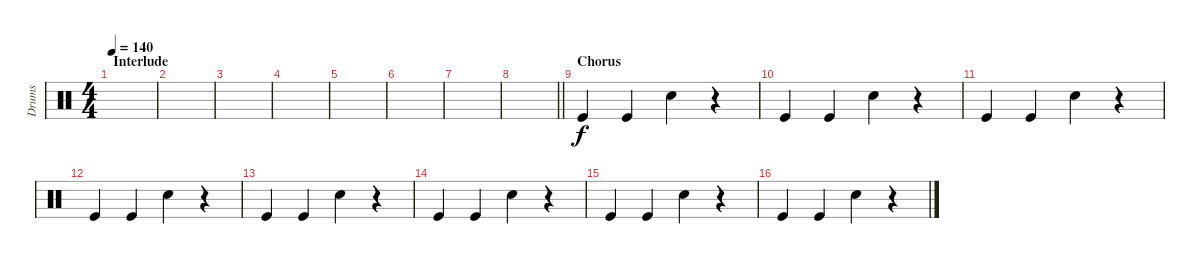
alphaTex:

\track ("Drums" "Drums") {instrument percussion}
\staff {score}
\articulation defaults
\ts (4 4)
\section ("" "Interlude")
\tempo 140
\clef neutral
\ks c
|
|
|
|
|
|
|
\barLineRight lightlight
|
\section ("" "Chorus")
"Kick (hit)".4 "Kick (hit)".4 "Snare (hit) 2".4 r.4 |
"Kick (hit)".4 "Kick (hit)".4 "Snare (hit) 2".4 r.4 |
"Kick (hit)".4 "Kick (hit)".4 "Snare (hit) 2".4 r.4 |
"Kick (hit)".4 "Kick (hit)".4 "Snare (hit) 2".4 r.4 |
"Kick (hit)".4 "Kick (hit)".4 "Snare (hit) 2".4 r.4 |
"Kick (hit)".4 "Kick (hit)".4 "Snare (hit) 2".4 r.4 |
"Kick (hit)".4 "Kick (hit)".4 "Snare (hit) 2".4 r.4 |
"Kick (hit)".4 "Kick (hit)".4 "Snare (hit) 2".4 r.4
